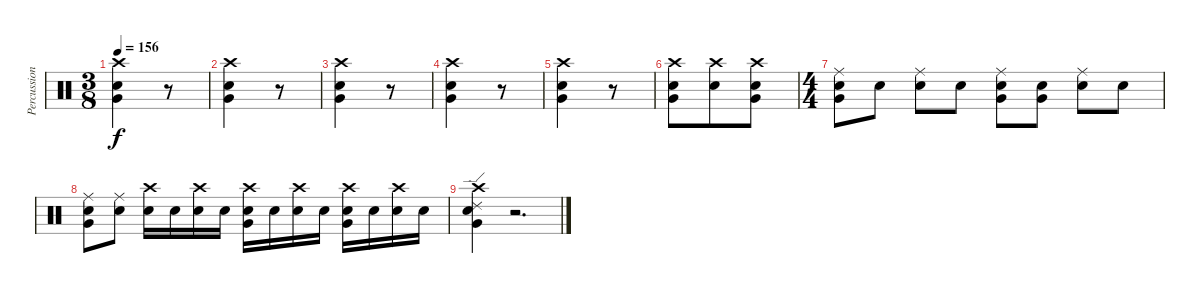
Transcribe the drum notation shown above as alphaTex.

\track ("Percussions" "Percussion") {instrument percussion}
\staff {score}
\articulation defaults
\ts (3 8)
\tempo 156
\clef neutral
\ks c
("Very Low Tom (hit)" "Electric Snare (hit)" "Crash high (hit)").4{dy f} r.8 |
("Very Low Tom (hit)" "Electric Snare (hit)" "Crash high (hit)").4 r.8 |
("Very Low Tom (hit)" "Electric Snare (hit)" "Crash high (hit)").4 r.8 |
("Very Low Tom (hit)" "Electric Snare (hit)" "Crash high (hit)").4 r.8 |
("Very Low Tom (hit)" "Electric Snare (hit)" "Crash high (hit)").4 r.8 |
("Very Low Tom (hit)" "Electric Snare (hit)" "Crash high (hit)").8 ("Electric Snare (hit)" "Crash high (hit)").8 ("Very Low Tom (hit)" "Electric Snare (hit)" "Crash high (hit)").8 |
\ts (4 4)
("Very Low Tom (hit)" "Electric Snare (hit)" "Ride (middle)").8 "Electric Snare (hit)".8 ("Electric Snare (hit)" "Ride (middle)").8 "Electric Snare (hit)".8 ("Very Low Tom (hit)" "Electric Snare (hit)" "Ride (middle)").8 ("Very Low Tom (hit)" "Electric Snare (hit)").8 ("Electric Snare (hit)" "Ride (middle)").8 "Electric Snare (hit)".8 |
("Very Low Tom (hit)" "Electric Snare (hit)" "Ride (middle)").8 ("Electric Snare (hit)" "Ride (middle)").8 ("Electric Snare (hit)" "Crash high (hit)").16 "Electric Snare (hit)".16 ("Electric Snare (hit)" "Crash high (hit)").16 "Electric Snare (hit)".16 ("Very Low Tom (hit)" "Electric Snare (hit)" "Crash high (hit)").16 "Electric Snare (hit)".16 ("Electric Snare (hit)" "Crash high (hit)").16 "Electric Snare (hit)".16 ("Very Low Tom (hit)" "Electric Snare (hit)" "Crash high (hit)").16 "Electric Snare (hit)".16 ("Electric Snare (hit)" "Crash high (hit)").16 "Electric Snare (hit)".16 |
("Very Low Tom (hit)" "Crash high (hit)" "Electric Snare (hit)" "Ride (edge) 2").4 r.2{d}
